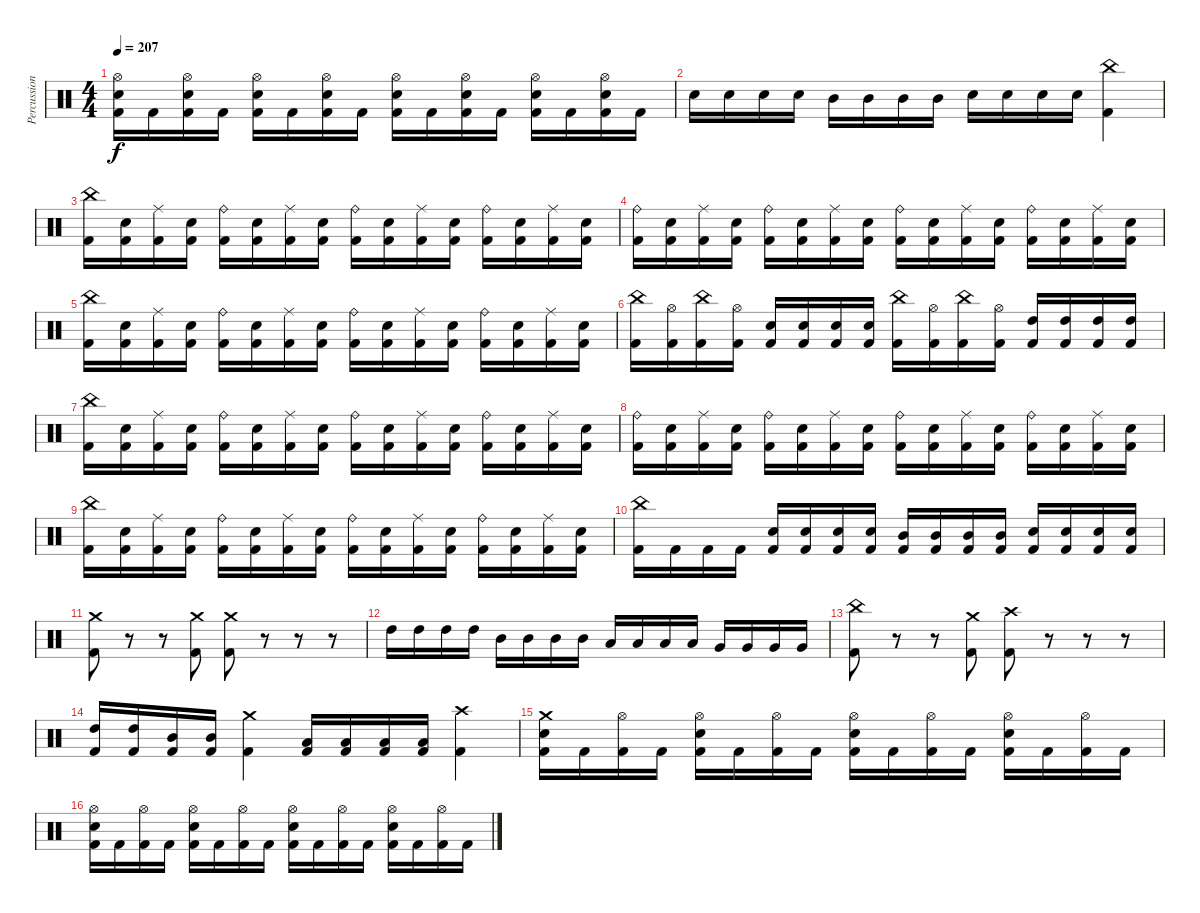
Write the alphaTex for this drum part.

\track ("Percussion" "Percussion") {instrument percussion}
\staff {score}
\articulation defaults
\ts (4 4)
\tempo 207
\clef neutral
\ks c
("Hi-Hat (open)" "Electric Snare (hit)" "Kick (hit) 2").16{dy f} "Kick (hit) 2".16 ("Hi-Hat (open)" "Electric Snare (hit)" "Kick (hit) 2").16 "Kick (hit) 2".16 ("Hi-Hat (open)" "Electric Snare (hit)" "Kick (hit) 2").16 "Kick (hit) 2".16 ("Hi-Hat (open)" "Electric Snare (hit)" "Kick (hit) 2").16 "Kick (hit) 2".16 ("Hi-Hat (open)" "Electric Snare (hit)" "Kick (hit) 2").16 "Kick (hit) 2".16 ("Hi-Hat (open)" "Electric Snare (hit)" "Kick (hit) 2").16 "Kick (hit) 2".16 ("Hi-Hat (open)" "Electric Snare (hit)" "Kick (hit) 2").16 "Kick (hit) 2".16 ("Hi-Hat (open)" "Electric Snare (hit)" "Kick (hit) 2").16 "Kick (hit) 2".16 |
"Electric Snare (hit)".16 "Electric Snare (hit)".16 "Electric Snare (hit)".16 "Electric Snare (hit)".16 "Mid Tom (hit)".16 "Mid Tom (hit)".16 "Mid Tom (hit)".16 "Mid Tom (hit)".16 "Electric Snare (hit)".16 "Electric Snare (hit)".16 "Electric Snare (hit)".16 "Electric Snare (hit)".16 ("China (hit)" "Kick (hit) 2").4 |
("China (hit)" "Kick (hit) 2").16 ("Electric Snare (hit)" "Kick (hit) 2").16 ("Ride (middle)" "Kick (hit) 2").16 ("Electric Snare (hit)" "Kick (hit) 2").16 ("Ride (bell)" "Kick (hit) 2").16 ("Electric Snare (hit)" "Kick (hit) 2").16 ("Ride (middle)" "Kick (hit) 2").16 ("Electric Snare (hit)" "Kick (hit) 2").16 ("Ride (bell)" "Kick (hit) 2").16 ("Electric Snare (hit)" "Kick (hit) 2").16 ("Ride (middle)" "Kick (hit) 2").16 ("Electric Snare (hit)" "Kick (hit) 2").16 ("Ride (bell)" "Kick (hit) 2").16 ("Electric Snare (hit)" "Kick (hit) 2").16 ("Ride (middle)" "Kick (hit) 2").16 ("Electric Snare (hit)" "Kick (hit) 2").16 |
("Ride (bell)" "Kick (hit) 2").16 ("Electric Snare (hit)" "Kick (hit) 2").16 ("Ride (middle)" "Kick (hit) 2").16 ("Electric Snare (hit)" "Kick (hit) 2").16 ("Ride (bell)" "Kick (hit) 2").16 ("Electric Snare (hit)" "Kick (hit) 2").16 ("Ride (middle)" "Kick (hit) 2").16 ("Electric Snare (hit)" "Kick (hit) 2").16 ("Ride (bell)" "Kick (hit) 2").16 ("Electric Snare (hit)" "Kick (hit) 2").16 ("Ride (middle)" "Kick (hit) 2").16 ("Electric Snare (hit)" "Kick (hit) 2").16 ("Ride (bell)" "Kick (hit) 2").16 ("Electric Snare (hit)" "Kick (hit) 2").16 ("Ride (middle)" "Kick (hit) 2").16 ("Electric Snare (hit)" "Kick (hit) 2").16 |
("China (hit)" "Kick (hit) 2").16 ("Electric Snare (hit)" "Kick (hit) 2").16 ("Ride (middle)" "Kick (hit) 2").16 ("Electric Snare (hit)" "Kick (hit) 2").16 ("Ride (bell)" "Kick (hit) 2").16 ("Electric Snare (hit)" "Kick (hit) 2").16 ("Ride (middle)" "Kick (hit) 2").16 ("Electric Snare (hit)" "Kick (hit) 2").16 ("Ride (bell)" "Kick (hit) 2").16 ("Electric Snare (hit)" "Kick (hit) 2").16 ("Ride (middle)" "Kick (hit) 2").16 ("Electric Snare (hit)" "Kick (hit) 2").16 ("Ride (bell)" "Kick (hit) 2").16 ("Electric Snare (hit)" "Kick (hit) 2").16 ("Ride (middle)" "Kick (hit) 2").16 ("Electric Snare (hit)" "Kick (hit) 2").16 |
("China (hit)" "Kick (hit) 2").16 ("Hi-Hat (open)" "Kick (hit) 2").16 ("China (hit)" "Kick (hit) 2").16 ("Hi-Hat (open)" "Kick (hit) 2").16 ("Electric Snare (hit)" "Kick (hit) 2").16 ("Electric Snare (hit)" "Kick (hit) 2").16 ("Electric Snare (hit)" "Kick (hit) 2").16 ("Electric Snare (hit)" "Kick (hit) 2").16 ("China (hit)" "Kick (hit) 2").16 ("Hi-Hat (open)" "Kick (hit) 2").16 ("China (hit)" "Kick (hit) 2").16 ("Hi-Hat (open)" "Kick (hit) 2").16 ("High Tom (hit)" "Kick (hit) 2").16 ("High Tom (hit)" "Kick (hit) 2").16 ("High Tom (hit)" "Kick (hit) 2").16 ("High Tom (hit)" "Kick (hit) 2").16 |
("China (hit)" "Kick (hit) 2").16 ("Electric Snare (hit)" "Kick (hit) 2").16 ("Ride (middle)" "Kick (hit) 2").16 ("Electric Snare (hit)" "Kick (hit) 2").16 ("Ride (bell)" "Kick (hit) 2").16 ("Electric Snare (hit)" "Kick (hit) 2").16 ("Ride (middle)" "Kick (hit) 2").16 ("Electric Snare (hit)" "Kick (hit) 2").16 ("Ride (bell)" "Kick (hit) 2").16 ("Electric Snare (hit)" "Kick (hit) 2").16 ("Ride (middle)" "Kick (hit) 2").16 ("Electric Snare (hit)" "Kick (hit) 2").16 ("Ride (bell)" "Kick (hit) 2").16 ("Electric Snare (hit)" "Kick (hit) 2").16 ("Ride (middle)" "Kick (hit) 2").16 ("Electric Snare (hit)" "Kick (hit) 2").16 |
("Ride (bell)" "Kick (hit) 2").16 ("Electric Snare (hit)" "Kick (hit) 2").16 ("Ride (middle)" "Kick (hit) 2").16 ("Electric Snare (hit)" "Kick (hit) 2").16 ("Ride (bell)" "Kick (hit) 2").16 ("Electric Snare (hit)" "Kick (hit) 2").16 ("Ride (middle)" "Kick (hit) 2").16 ("Electric Snare (hit)" "Kick (hit) 2").16 ("Ride (bell)" "Kick (hit) 2").16 ("Electric Snare (hit)" "Kick (hit) 2").16 ("Ride (middle)" "Kick (hit) 2").16 ("Electric Snare (hit)" "Kick (hit) 2").16 ("Ride (bell)" "Kick (hit) 2").16 ("Electric Snare (hit)" "Kick (hit) 2").16 ("Ride (middle)" "Kick (hit) 2").16 ("Electric Snare (hit)" "Kick (hit) 2").16 |
("China (hit)" "Kick (hit) 2").16 ("Electric Snare (hit)" "Kick (hit) 2").16 ("Ride (middle)" "Kick (hit) 2").16 ("Electric Snare (hit)" "Kick (hit) 2").16 ("Ride (bell)" "Kick (hit) 2").16 ("Electric Snare (hit)" "Kick (hit) 2").16 ("Ride (middle)" "Kick (hit) 2").16 ("Electric Snare (hit)" "Kick (hit) 2").16 ("Ride (bell)" "Kick (hit) 2").16 ("Electric Snare (hit)" "Kick (hit) 2").16 ("Ride (middle)" "Kick (hit) 2").16 ("Electric Snare (hit)" "Kick (hit) 2").16 ("Ride (bell)" "Kick (hit) 2").16 ("Electric Snare (hit)" "Kick (hit) 2").16 ("Ride (middle)" "Kick (hit) 2").16 ("Electric Snare (hit)" "Kick (hit) 2").16 |
("China (hit)" "Kick (hit) 2").16 "Kick (hit) 2".16 "Kick (hit) 2".16 "Kick (hit) 2".16 ("Electric Snare (hit)" "Kick (hit) 2").16 ("Electric Snare (hit)" "Kick (hit) 2").16 ("Electric Snare (hit)" "Kick (hit) 2").16 ("Electric Snare (hit)" "Kick (hit) 2").16 ("Mid Tom (hit)" "Kick (hit) 2").16 ("Mid Tom (hit)" "Kick (hit) 2").16 ("Mid Tom (hit)" "Kick (hit) 2").16 ("Mid Tom (hit)" "Kick (hit) 2").16 ("Electric Snare (hit)" "Kick (hit) 2").16 ("Electric Snare (hit)" "Kick (hit) 2").16 ("Electric Snare (hit)" "Kick (hit) 2").16 ("Electric Snare (hit)" "Kick (hit) 2").16 |
("Crash medium (hit)"{x} "Kick (hit) 2").8 r.8 r.8 ("Crash medium (hit)"{x} "Kick (hit) 2").8 ("Crash medium (hit)"{x} "Kick (hit) 2").8 r.8 r.8 r.8 |
"High Tom (hit)".16 "High Tom (hit)".16 "High Tom (hit)".16 "High Tom (hit)".16 "Mid Tom (hit)".16 "Mid Tom (hit)".16 "Mid Tom (hit)".16 "Mid Tom (hit)".16 "Low Tom (hit)".16 "Low Tom (hit)".16 "Low Tom (hit)".16 "Low Tom (hit)".16 "Very Low Tom (hit)".16 "Very Low Tom (hit)".16 "Very Low Tom (hit)".16 "Very Low Tom (hit)".16 |
("China (hit)" "Kick (hit) 2").8 r.8 r.8 ("Crash medium (hit)" "Kick (hit) 2").8 ("Crash high (hit)" "Kick (hit) 2").8 r.8 r.8 r.8 |
("High Tom (hit)" "Kick (hit) 2").16 ("High Tom (hit)" "Kick (hit) 2").16 ("Mid Tom (hit)" "Kick (hit) 2").16 ("Mid Tom (hit)" "Kick (hit) 2").16 ("Crash medium (hit)" "Kick (hit) 2").4 ("Low Tom (hit)" "Kick (hit) 2").16 ("Low Tom (hit)" "Kick (hit) 2").16 ("Low Tom (hit)" "Kick (hit) 2").16 ("Low Tom (hit)" "Kick (hit) 2").16 ("Crash high (hit)" "Kick (hit) 2").4 |
("Crash medium (hit)" "Electric Snare (hit)" "Kick (hit) 2").16 "Kick (hit) 2".16 ("Hi-Hat (open)" "Kick (hit) 2").16 "Kick (hit) 2".16 ("Hi-Hat (open)" "Electric Snare (hit)" "Kick (hit) 2").16 "Kick (hit) 2".16 ("Hi-Hat (open)" "Kick (hit) 2").16 "Kick (hit) 2".16 ("Hi-Hat (open)" "Electric Snare (hit)" "Kick (hit) 2").16 "Kick (hit) 2".16 ("Hi-Hat (open)" "Kick (hit) 2").16 "Kick (hit) 2".16 ("Hi-Hat (open)" "Electric Snare (hit)" "Kick (hit) 2").16 "Kick (hit) 2".16 ("Hi-Hat (open)" "Kick (hit) 2").16 "Kick (hit) 2".16 |
("Hi-Hat (open)" "Electric Snare (hit)" "Kick (hit) 2").16 "Kick (hit) 2".16 ("Hi-Hat (open)" "Kick (hit) 2").16 "Kick (hit) 2".16 ("Hi-Hat (open)" "Electric Snare (hit)" "Kick (hit) 2").16 "Kick (hit) 2".16 ("Hi-Hat (open)" "Kick (hit) 2").16 "Kick (hit) 2".16 ("Hi-Hat (open)" "Electric Snare (hit)" "Kick (hit) 2").16 "Kick (hit) 2".16 ("Hi-Hat (open)" "Kick (hit) 2").16 "Kick (hit) 2".16 ("Hi-Hat (open)" "Electric Snare (hit)" "Kick (hit) 2").16 "Kick (hit) 2".16 ("Hi-Hat (open)" "Kick (hit) 2").16 "Kick (hit) 2".16
